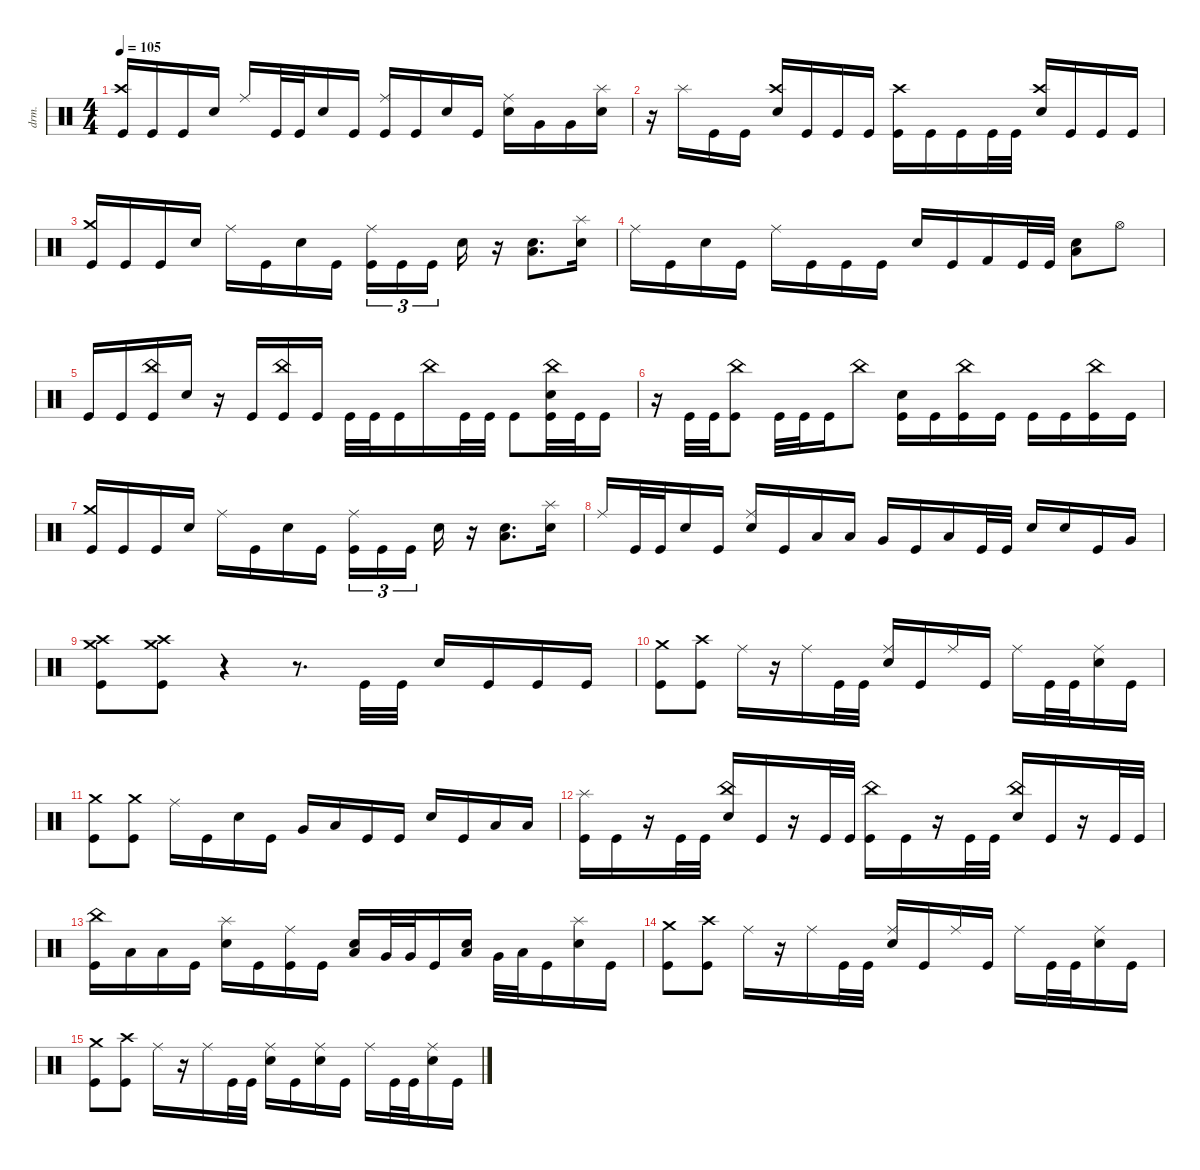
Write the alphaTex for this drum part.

\defaultSystemsLayout 4
\hideDynamics
\bracketExtendMode nobrackets
\otherSystemsTrackNameOrientation horizontal
\track ("Drumkit" "drm.") {instrument percussion}
\staff {score}
\articulation defaults
\ts (4 4)
\tempo 105
\clef neutral
\ks c
("Crash high (hit)" "Kick (hit)").16{dy mf beam Up} "Kick (hit)".16{beam Up} "Kick (hit)".16{beam Up} "Electric Snare (hit)".16{beam Up} "Ride (middle)".16{beam Up} "Kick (hit)".32{beam Up} "Kick (hit)".32{beam Up} "Electric Snare (hit)".16{beam Up} "Kick (hit)".16{beam Up} ("Kick (hit)" "Ride (middle)").16{beam Up} "Kick (hit)".16{beam Up} "Electric Snare (hit)".16{beam Up} "Kick (hit)".16{beam Up} ("Electric Snare (hit)" "Ride (middle)").16{beam Down} "Very Low Tom (hit)".16{beam Down} "Very Low Tom (hit)".16{beam Down} ("Splash (hit)" "Electric Snare (hit)").16{beam Down} |
r.16{beam Down} "Splash (hit)".16{beam Down} "Kick (hit)".16{beam Down} "Kick (hit)".16{beam Down} ("Crash high (hit)" "Electric Snare (hit)").16{beam Up} "Kick (hit)".16{beam Up} "Kick (hit)".16{beam Up} "Kick (hit)".16{beam Up} ("Crash high (hit)" "Kick (hit)").16{beam Down} "Kick (hit)".16{beam Down} "Kick (hit)".16{beam Down} "Kick (hit)".32{beam Down} "Kick (hit)".32{beam Down} ("Crash high (hit)" "Electric Snare (hit)").16{beam Up} "Kick (hit)".16{beam Up} "Kick (hit)".16{beam Up} "Kick (hit)".16{beam Up} |
("Crash medium (hit)" "Kick (hit)").16{beam Up} "Kick (hit)".16{beam Up} "Kick (hit)".16{beam Up} "Electric Snare (hit)".16{beam Up} "Ride (middle)".16{beam Down} "Kick (hit)".16{beam Down} "Electric Snare (hit)".16{beam Down} "Kick (hit)".16{beam Down} ("Ride (middle)" "Kick (hit)").16{tu (3 2) beam Down} "Kick (hit)".16{tu (3 2) beam Down} "Kick (hit)".16{tu (3 2) beam Down} "Electric Snare (hit)".16{beam Down} r.16{beam Down} ("Electric Snare (hit)" "Low Floor Tom (hit)").8{d beam Down} ("Splash (hit)" "Electric Snare (hit)").16{beam Down} |
"Ride (middle)".16{beam Down} "Kick (hit)".16{beam Down} "Electric Snare (hit)".16{beam Down} "Kick (hit)".16{beam Down} "Ride (middle)".16{beam Down} "Kick (hit)".16{beam Down} "Kick (hit)".16{beam Down} "Kick (hit)".16{beam Down} "Electric Snare (hit)".16{beam Up} "Kick (hit)".16{beam Up} "Kick (hit) 2".16{beam Up} "Kick (hit)".32{beam Up} "Kick (hit)".32{beam Up} ("Electric Snare (hit)" "Low Floor Tom (hit)").8{beam Down} "Hi-Hat (open)".8{beam Down} |
"Kick (hit)".16{beam Up} "Kick (hit)".16{beam Up} ("Kick (hit)" "China (hit)").16{beam Up} "Electric Snare (hit)".16{beam Up} r.16{beam Up} "Kick (hit)".16{beam Down} ("Kick (hit)" "China (hit)").16{beam Down} "Kick (hit)".16{beam Down} "Kick (hit)".32{beam Down} "Kick (hit)".32{beam Down} "Kick (hit)".16{beam Down} "China (hit)".16{beam Down} "Kick (hit)".32{beam Down} "Kick (hit)".32{beam Down} "Kick (hit)".8{beam Down} ("Kick (hit)" "China (hit)" "Electric Snare (hit)").32{beam Down} "Kick (hit)".32{beam Down} "Kick (hit)".16{beam Down} |
r.16{beam Down} "Kick (hit)".32{beam Down} "Kick (hit)".32{beam Down} ("Kick (hit)" "China (hit)").8{beam Down} "Kick (hit)".32{beam Down} "Kick (hit)".32{beam Down} "Kick (hit)".16{beam Down} "China (hit)".8{beam Down} ("Kick (hit)" "Electric Snare (hit)").16{beam Down} "Kick (hit)".16{beam Down} ("Kick (hit)" "China (hit)").16{beam Down} "Kick (hit)".16{beam Down} "Kick (hit)".16{beam Down} "Kick (hit)".16{beam Down} ("Kick (hit)" "China (hit)").16{beam Down} "Kick (hit)".16{beam Down} |
("Crash medium (hit)" "Kick (hit)").16{beam Up} "Kick (hit)".16{beam Up} "Kick (hit)".16{beam Up} "Electric Snare (hit)".16{beam Up} "Ride (middle)".16{beam Down} "Kick (hit)".16{beam Down} "Electric Snare (hit)".16{beam Down} "Kick (hit)".16{beam Down} ("Ride (middle)" "Kick (hit)").16{tu (3 2) beam Down} "Kick (hit)".16{tu (3 2) beam Down} "Kick (hit)".16{tu (3 2) beam Down} "Electric Snare (hit)".16{beam Down} r.16{beam Down} ("Electric Snare (hit)" "Low Floor Tom (hit)").8{d beam Down} ("Splash (hit)" "Electric Snare (hit)").16{beam Down} |
"Ride (middle)".16{beam Up} "Kick (hit)".32{beam Up} "Kick (hit)".32{beam Up} "Electric Snare (hit)".16{beam Up} "Kick (hit)".16{beam Up} ("Ride (middle)" "Electric Snare (hit)").16{beam Up} "Kick (hit)".16{beam Up} "Low Tom (hit)".16{beam Up} "Low Tom (hit)".16{beam Up} "Very Low Tom (hit)".16{beam Up} "Kick (hit)".16{beam Up} "Low Floor Tom (hit)".16{beam Up} "Kick (hit)".32{beam Up} "Kick (hit)".32{beam Up} "Electric Snare (hit)".16{beam Up} "Electric Snare (hit)".16{beam Up} "Kick (hit)".16{beam Up} "Very Low Tom (hit)".16{beam Up} |
("Crash high (hit)" "Crash medium (hit)" "Kick (hit)").8{beam Down} ("Crash high (hit)" "Crash medium (hit)" "Kick (hit)").8{beam Down} r.4{beam Down} r.8{d beam Down} "Kick (hit)".32{beam Up} "Kick (hit)".32{beam Up} "Electric Snare (hit)".16{beam Up} "Kick (hit)".16{beam Up} "Kick (hit)".16{beam Up} "Kick (hit)".16{beam Up} |
("Crash medium (hit)" "Kick (hit)").8{beam Down} ("Kick (hit)" "Crash high (hit)").8{beam Down} "Ride (middle)".16{beam Down} r.16{beam Down} "Ride (middle)".16{beam Down} "Kick (hit)".32{beam Down} "Kick (hit)".32{beam Down} ("Ride (middle)" "Electric Snare (hit)").16{beam Up} "Kick (hit)".16{beam Up} "Ride (middle)".16{beam Up} "Kick (hit)".16{beam Up} "Ride (middle)".16{beam Down} "Kick (hit)".32{beam Down} "Kick (hit)".32{beam Down} ("Ride (middle)" "Electric Snare (hit)").16{beam Down} "Kick (hit)".16{beam Down} |
("Crash medium (hit)" "Kick (hit)").8{beam Down} ("Kick (hit)" "Crash medium (hit)").8{beam Down} "Ride (middle)".16{beam Down} "Kick (hit)".16{beam Down} "Electric Snare (hit)".16{beam Down} "Kick (hit)".16{beam Down} "Very Low Tom (hit)".16{beam Up} "Low Tom (hit)".16{beam Up} "Kick (hit)".16{beam Up} "Kick (hit)".16{beam Up} "Electric Snare (hit)".16{beam Up} "Kick (hit)".16{beam Up} "Low Floor Tom (hit)".16{beam Up} "Low Floor Tom (hit)".16{beam Up} |
("Splash (hit)" "Kick (hit)").16{beam Down} "Kick (hit)".16{beam Down} r.16{beam Down} "Kick (hit)".32{beam Down} "Kick (hit)".32{beam Down} ("Electric Snare (hit)" "China (hit)").16{beam Up} "Kick (hit)".16{beam Up} r.16{beam Up} "Kick (hit)".32{beam Up} "Kick (hit)".32{beam Up} ("Kick (hit)" "China (hit)").16{beam Down} "Kick (hit)".16{beam Down} r.16{beam Down} "Kick (hit)".32{beam Down} "Kick (hit)".32{beam Down} ("China (hit)" "Electric Snare (hit)").16{beam Up} "Kick (hit)".16{beam Up} r.16{beam Up} "Kick (hit)".32{beam Up} "Kick (hit)".32{beam Up} |
("China (hit)" "Kick (hit)").16{beam Down} "Low Tom (hit)".16{beam Down} "Low Tom (hit)".16{beam Down} "Kick (hit)".16{beam Down} ("Splash (hit)" "Electric Snare (hit)").16{beam Down} "Kick (hit)".16{beam Down} ("Kick (hit)" "Ride (middle)").16{beam Down} "Kick (hit)".16{beam Down} ("Electric Snare (hit)" "Low Floor Tom (hit)").16{beam Up} "Very Low Tom (hit)".32{beam Up} "Very Low Tom (hit)".32{beam Up} "Kick (hit)".16{beam Up} ("Electric Snare (hit)" "Low Floor Tom (hit)").16{beam Up} "Very Low Tom (hit)".32{beam Down} "Low Tom (hit)".32{beam Down} "Kick (hit)".16{beam Down} ("Electric Snare (hit)" "Splash (hit)").16{beam Down} "Kick (hit)".16{beam Down} |
("Crash medium (hit)" "Kick (hit)").8{beam Down} ("Kick (hit)" "Crash high (hit)").8{beam Down} "Ride (middle)".16{beam Down} r.16{beam Down} "Ride (middle)".16{beam Down} "Kick (hit)".32{beam Down} "Kick (hit)".32{beam Down} ("Ride (middle)" "Electric Snare (hit)").16{beam Up} "Kick (hit)".16{beam Up} "Ride (middle)".16{beam Up} "Kick (hit)".16{beam Up} "Ride (middle)".16{beam Down} "Kick (hit)".32{beam Down} "Kick (hit)".32{beam Down} ("Ride (middle)" "Electric Snare (hit)").16{beam Down} "Kick (hit)".16{beam Down} |
("Crash medium (hit)" "Kick (hit)").8{beam Down} ("Kick (hit)" "Crash high (hit)").8{beam Down} "Ride (middle)".16{beam Down} r.16{beam Down} "Ride (middle)".16{beam Down} "Kick (hit)".32{beam Down} "Kick (hit)".32{beam Down} ("Ride (middle)" "Electric Snare (hit)").16{beam Down} "Kick (hit)".16{beam Down} ("Ride (middle)" "Electric Snare (hit)").16{beam Down} "Kick (hit)".16{beam Down} "Ride (middle)".16{beam Down} "Kick (hit)".32{beam Down} "Kick (hit)".32{beam Down} ("Ride (middle)" "Electric Snare (hit)").16{beam Down} "Kick (hit)".16{beam Down}
